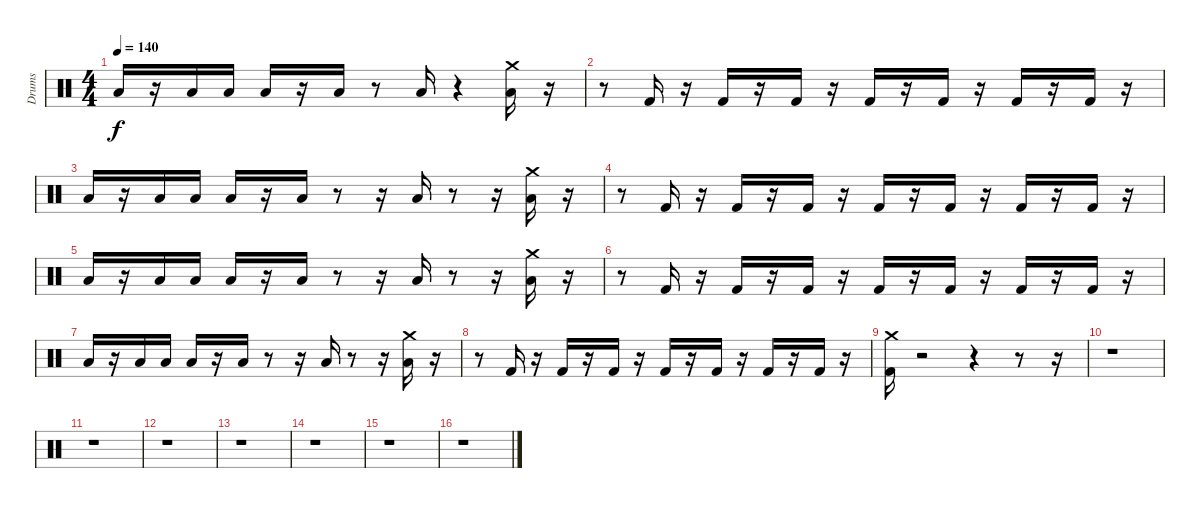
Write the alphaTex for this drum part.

\track ("Drums               " "Drums     ") {instrument percussion}
\staff {score}
\articulation defaults
\ts (4 4)
\tempo 140
\clef neutral
\ks c "Low Floor Tom (hit)".16{dy f}
r.16 "Low Floor Tom (hit)".16 "Low Floor Tom (hit)".16 "Low Floor Tom (hit)".16 r.16 "Low Floor Tom (hit)".16 r.8 "Low Floor Tom (hit)".16 r.4 ("Low Floor Tom (hit)" "Crash medium (hit)").16 r.16 |
r.8 "Kick (hit) 2".16 r.16 "Kick (hit) 2".16 r.16 "Kick (hit) 2".16 r.16 "Kick (hit) 2".16 r.16 "Kick (hit) 2".16 r.16 "Kick (hit) 2".16 r.16 "Kick (hit) 2".16 r.16 |
"Low Floor Tom (hit)".16 r.16 "Low Floor Tom (hit)".16 "Low Floor Tom (hit)".16 "Low Floor Tom (hit)".16 r.16 "Low Floor Tom (hit)".16 r.8 r.16 "Low Floor Tom (hit)".16 r.8 r.16 ("Low Floor Tom (hit)" "Crash medium (hit)").16 r.16 |
r.8 "Kick (hit) 2".16 r.16 "Kick (hit) 2".16 r.16 "Kick (hit) 2".16 r.16 "Kick (hit) 2".16 r.16 "Kick (hit) 2".16 r.16 "Kick (hit) 2".16 r.16 "Kick (hit) 2".16 r.16 |
"Low Floor Tom (hit)".16 r.16 "Low Floor Tom (hit)".16 "Low Floor Tom (hit)".16 "Low Floor Tom (hit)".16 r.16 "Low Floor Tom (hit)".16 r.8 r.16 "Low Floor Tom (hit)".16 r.8 r.16 ("Low Floor Tom (hit)" "Crash medium (hit)").16 r.16 |
r.8 "Kick (hit) 2".16 r.16 "Kick (hit) 2".16 r.16 "Kick (hit) 2".16 r.16 "Kick (hit) 2".16 r.16 "Kick (hit) 2".16 r.16 "Kick (hit) 2".16 r.16 "Kick (hit) 2".16 r.16 |
"Low Floor Tom (hit)".16 r.16 "Low Floor Tom (hit)".16 "Low Floor Tom (hit)".16 "Low Floor Tom (hit)".16 r.16 "Low Floor Tom (hit)".16 r.8 r.16 "Low Floor Tom (hit)".16 r.8 r.16 ("Low Floor Tom (hit)" "Crash medium (hit)").16 r.16 |
r.8 "Kick (hit) 2".16 r.16 "Kick (hit) 2".16 r.16 "Kick (hit) 2".16 r.16 "Kick (hit) 2".16 r.16 "Kick (hit) 2".16 r.16 "Kick (hit) 2".16 r.16 "Kick (hit) 2".16 r.16 |
("Kick (hit) 2" "Crash medium (hit)").16 r.2 r.4 r.8 r.16 |
r.1 |
r.1 |
r.1 |
r.1 |
r.1 |
r.1 |
r.1
